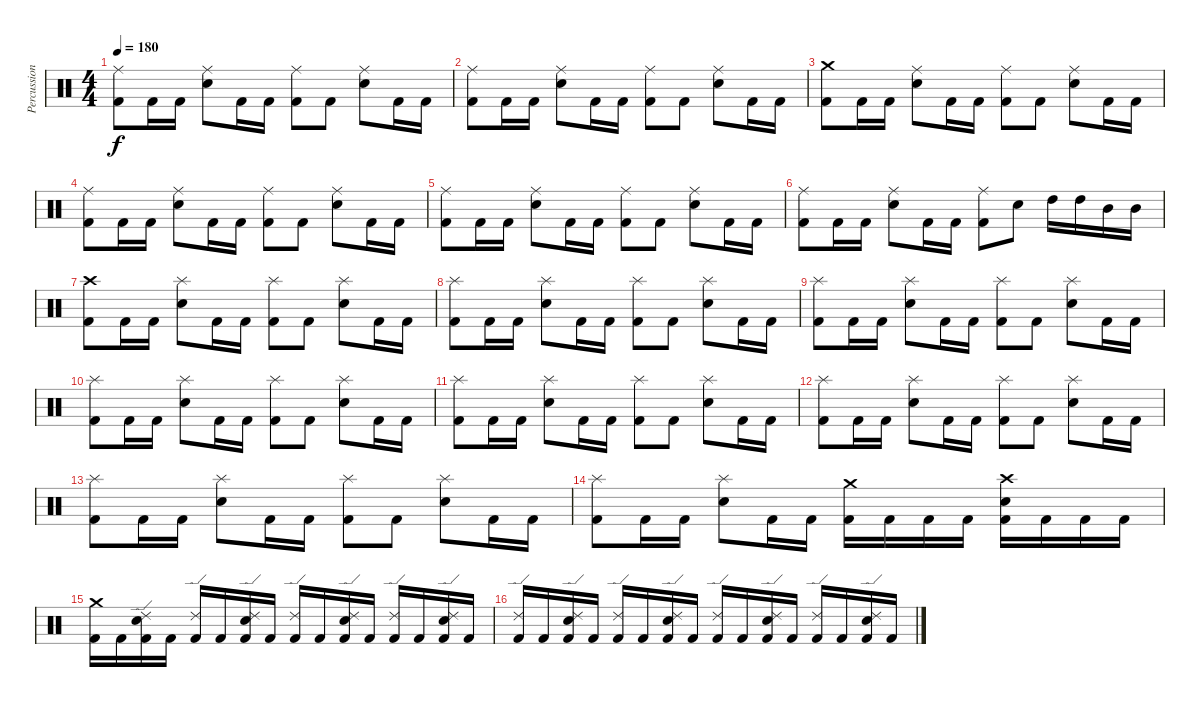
\track ("Percussion" "Percussion") {instrument percussion}
\staff {score}
\articulation defaults
\ts (4 4)
\tempo 180
\clef neutral
\ks c
("Kick (hit) 2" "Ride (middle)").8{dy f} "Kick (hit) 2".16 "Kick (hit) 2".16 ("Electric Snare (hit)" "Ride (middle)").8 "Kick (hit) 2".16 "Kick (hit) 2".16 ("Kick (hit) 2" "Ride (middle)").8 "Kick (hit) 2".8 ("Electric Snare (hit)" "Ride (middle)").8 "Kick (hit) 2".16 "Kick (hit) 2".16 |
("Kick (hit) 2" "Ride (middle)").8 "Kick (hit) 2".16 "Kick (hit) 2".16 ("Electric Snare (hit)" "Ride (middle)").8 "Kick (hit) 2".16 "Kick (hit) 2".16 ("Kick (hit) 2" "Ride (middle)").8 "Kick (hit) 2".8 ("Electric Snare (hit)" "Ride (middle)").8 "Kick (hit) 2".16 "Kick (hit) 2".16 |
("Kick (hit) 2" "Crash medium (hit)").8 "Kick (hit) 2".16 "Kick (hit) 2".16 ("Electric Snare (hit)" "Ride (middle)").8 "Kick (hit) 2".16 "Kick (hit) 2".16 ("Kick (hit) 2" "Ride (middle)").8 "Kick (hit) 2".8 ("Electric Snare (hit)" "Ride (middle)").8 "Kick (hit) 2".16 "Kick (hit) 2".16 |
("Kick (hit) 2" "Ride (middle)").8 "Kick (hit) 2".16 "Kick (hit) 2".16 ("Electric Snare (hit)" "Ride (middle)").8 "Kick (hit) 2".16 "Kick (hit) 2".16 ("Kick (hit) 2" "Ride (middle)").8 "Kick (hit) 2".8 ("Electric Snare (hit)" "Ride (middle)").8 "Kick (hit) 2".16 "Kick (hit) 2".16 |
("Kick (hit) 2" "Ride (middle)").8 "Kick (hit) 2".16 "Kick (hit) 2".16 ("Electric Snare (hit)" "Ride (middle)").8 "Kick (hit) 2".16 "Kick (hit) 2".16 ("Kick (hit) 2" "Ride (middle)").8 "Kick (hit) 2".8 ("Electric Snare (hit)" "Ride (middle)").8 "Kick (hit) 2".16 "Kick (hit) 2".16 |
("Kick (hit) 2" "Ride (middle)").8 "Kick (hit) 2".16 "Kick (hit) 2".16 ("Electric Snare (hit)" "Ride (middle)").8 "Kick (hit) 2".16 "Kick (hit) 2".16 ("Kick (hit) 2" "Ride (middle)").8 "Electric Snare (hit)".8 "High Tom (hit)".16 "High Tom (hit)".16 "Mid Tom (hit)".16 "Mid Tom (hit)".16 |
("Kick (hit) 2" "Crash high (hit)").8 "Kick (hit) 2".16 "Kick (hit) 2".16 ("Electric Snare (hit)" "Splash (hit)").8 "Kick (hit) 2".16 "Kick (hit) 2".16 ("Kick (hit) 2" "Splash (hit)").8 "Kick (hit) 2".8 ("Electric Snare (hit)" "Splash (hit)").8 "Kick (hit) 2".16 "Kick (hit) 2".16 |
("Kick (hit) 2" "Splash (hit)").8 "Kick (hit) 2".16 "Kick (hit) 2".16 ("Electric Snare (hit)" "Splash (hit)").8 "Kick (hit) 2".16 "Kick (hit) 2".16 ("Kick (hit) 2" "Splash (hit)").8 "Kick (hit) 2".8 ("Electric Snare (hit)" "Splash (hit)").8 "Kick (hit) 2".16 "Kick (hit) 2".16 |
("Kick (hit) 2" "Splash (hit)").8 "Kick (hit) 2".16 "Kick (hit) 2".16 ("Electric Snare (hit)" "Splash (hit)").8 "Kick (hit) 2".16 "Kick (hit) 2".16 ("Kick (hit) 2" "Splash (hit)").8 "Kick (hit) 2".8 ("Electric Snare (hit)" "Splash (hit)").8 "Kick (hit) 2".16 "Kick (hit) 2".16 |
("Kick (hit) 2" "Splash (hit)").8 "Kick (hit) 2".16 "Kick (hit) 2".16 ("Electric Snare (hit)" "Splash (hit)").8 "Kick (hit) 2".16 "Kick (hit) 2".16 ("Kick (hit) 2" "Splash (hit)").8 "Kick (hit) 2".8 ("Electric Snare (hit)" "Splash (hit)").8 "Kick (hit) 2".16 "Kick (hit) 2".16 |
("Kick (hit) 2" "Splash (hit)").8 "Kick (hit) 2".16 "Kick (hit) 2".16 ("Electric Snare (hit)" "Splash (hit)").8 "Kick (hit) 2".16 "Kick (hit) 2".16 ("Kick (hit) 2" "Splash (hit)").8 "Kick (hit) 2".8 ("Electric Snare (hit)" "Splash (hit)").8 "Kick (hit) 2".16 "Kick (hit) 2".16 |
("Kick (hit) 2" "Splash (hit)").8 "Kick (hit) 2".16 "Kick (hit) 2".16 ("Electric Snare (hit)" "Splash (hit)").8 "Kick (hit) 2".16 "Kick (hit) 2".16 ("Kick (hit) 2" "Splash (hit)").8 "Kick (hit) 2".8 ("Electric Snare (hit)" "Splash (hit)").8 "Kick (hit) 2".16 "Kick (hit) 2".16 |
("Kick (hit) 2" "Splash (hit)").8 "Kick (hit) 2".16 "Kick (hit) 2".16 ("Electric Snare (hit)" "Splash (hit)").8 "Kick (hit) 2".16 "Kick (hit) 2".16 ("Kick (hit) 2" "Splash (hit)").8 "Kick (hit) 2".8 ("Electric Snare (hit)" "Splash (hit)").8 "Kick (hit) 2".16 "Kick (hit) 2".16 |
("Kick (hit) 2" "Splash (hit)").8 "Kick (hit) 2".16 "Kick (hit) 2".16 ("Electric Snare (hit)" "Splash (hit)").8 "Kick (hit) 2".16 "Kick (hit) 2".16 ("Kick (hit) 2" "Crash medium (hit)").16 "Kick (hit) 2".16 "Kick (hit) 2".16 "Kick (hit) 2".16 ("Kick (hit) 2" "Electric Snare (hit)" "Crash high (hit)").16 "Kick (hit) 2".16 "Kick (hit) 2".16 "Kick (hit) 2".16 |
("Kick (hit) 2" "Crash medium (hit)").16 "Kick (hit) 2".16 ("Kick (hit) 2" "Electric Snare (hit)" "Ride (edge) 2").16 "Kick (hit) 2".16 ("Kick (hit) 2" "Ride (edge) 2").16 "Kick (hit) 2".16 ("Kick (hit) 2" "Electric Snare (hit)" "Ride (edge) 2").16 "Kick (hit) 2".16 ("Kick (hit) 2" "Ride (edge) 2").16 "Kick (hit) 2".16 ("Kick (hit) 2" "Electric Snare (hit)" "Ride (edge) 2").16 "Kick (hit) 2".16 ("Kick (hit) 2" "Ride (edge) 2").16 "Kick (hit) 2".16 ("Kick (hit) 2" "Electric Snare (hit)" "Ride (edge) 2").16 "Kick (hit) 2".16 |
("Kick (hit) 2" "Ride (edge) 2").16 "Kick (hit) 2".16 ("Kick (hit) 2" "Electric Snare (hit)" "Ride (edge) 2").16 "Kick (hit) 2".16 ("Kick (hit) 2" "Ride (edge) 2").16 "Kick (hit) 2".16 ("Kick (hit) 2" "Electric Snare (hit)" "Ride (edge) 2").16 "Kick (hit) 2".16 ("Kick (hit) 2" "Ride (edge) 2").16 "Kick (hit) 2".16 ("Kick (hit) 2" "Electric Snare (hit)" "Ride (edge) 2").16 "Kick (hit) 2".16 ("Kick (hit) 2" "Ride (edge) 2").16 "Kick (hit) 2".16 ("Kick (hit) 2" "Electric Snare (hit)" "Ride (edge) 2").16 "Kick (hit) 2".16
